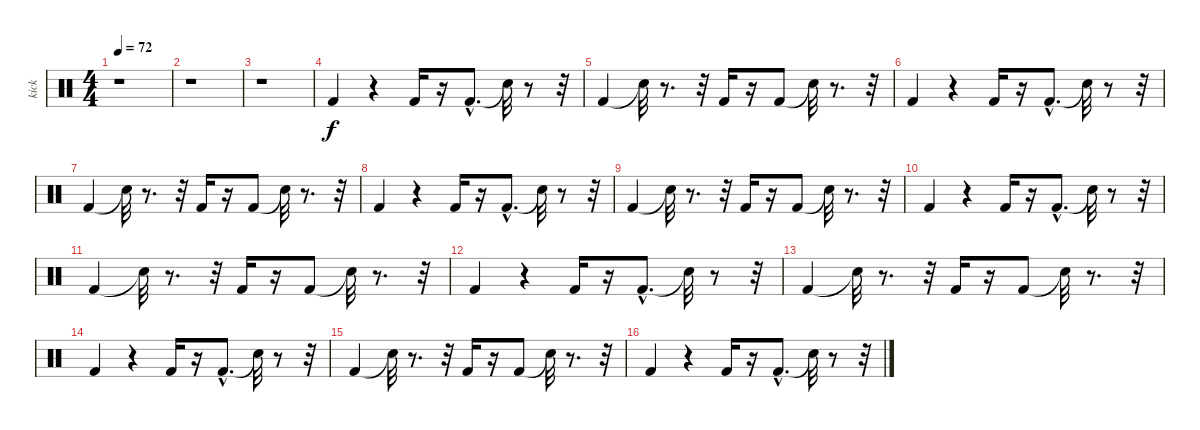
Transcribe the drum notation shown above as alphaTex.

\track ("kick" "kick") {instrument percussion}
\staff {score}
\articulation defaults
\ts (4 4)
\tempo 72
\clef neutral
\ks c
r.1{dy f} |
r.1 |
r.1 |
"Kick (hit) 2".4 r.4 "Kick (hit) 2".16 r.16 "Kick (hit) 2"{hac}.8{d} "Snare (hit)"{t}.32 r.8 r.32 |
"Kick (hit) 2".4 "Snare (hit)"{t}.32 r.8{d} r.32 "Kick (hit) 2".16 r.16 "Kick (hit) 2".8 "Snare (hit)"{t}.32 r.8{d} r.32 |
"Kick (hit) 2".4 r.4 "Kick (hit) 2".16 r.16 "Kick (hit) 2"{hac}.8{d} "Snare (hit)"{t}.32 r.8 r.32 |
"Kick (hit) 2".4 "Snare (hit)"{t}.32 r.8{d} r.32 "Kick (hit) 2".16 r.16 "Kick (hit) 2".8 "Snare (hit)"{t}.32 r.8{d} r.32 |
"Kick (hit) 2".4 r.4 "Kick (hit) 2".16 r.16 "Kick (hit) 2"{hac}.8{d} "Snare (hit)"{t}.32 r.8 r.32 |
"Kick (hit) 2".4 "Snare (hit)"{t}.32 r.8{d} r.32 "Kick (hit) 2".16 r.16 "Kick (hit) 2".8 "Snare (hit)"{t}.32 r.8{d} r.32 |
"Kick (hit) 2".4 r.4 "Kick (hit) 2".16 r.16 "Kick (hit) 2"{hac}.8{d} "Snare (hit)"{t}.32 r.8 r.32 |
"Kick (hit) 2".4 "Snare (hit)"{t}.32 r.8{d} r.32 "Kick (hit) 2".16 r.16 "Kick (hit) 2".8 "Snare (hit)"{t}.32 r.8{d} r.32 |
"Kick (hit) 2".4 r.4 "Kick (hit) 2".16 r.16 "Kick (hit) 2"{hac}.8{d} "Snare (hit)"{t}.32 r.8 r.32 |
"Kick (hit) 2".4 "Snare (hit)"{t}.32 r.8{d} r.32 "Kick (hit) 2".16 r.16 "Kick (hit) 2".8 "Snare (hit)"{t}.32 r.8{d} r.32 |
"Kick (hit) 2".4 r.4 "Kick (hit) 2".16 r.16 "Kick (hit) 2"{hac}.8{d} "Snare (hit)"{t}.32 r.8 r.32 |
"Kick (hit) 2".4 "Snare (hit)"{t}.32 r.8{d} r.32 "Kick (hit) 2".16 r.16 "Kick (hit) 2".8 "Snare (hit)"{t}.32 r.8{d} r.32 |
"Kick (hit) 2".4 r.4 "Kick (hit) 2".16 r.16 "Kick (hit) 2"{hac}.8{d} "Snare (hit)"{t}.32 r.8 r.32
